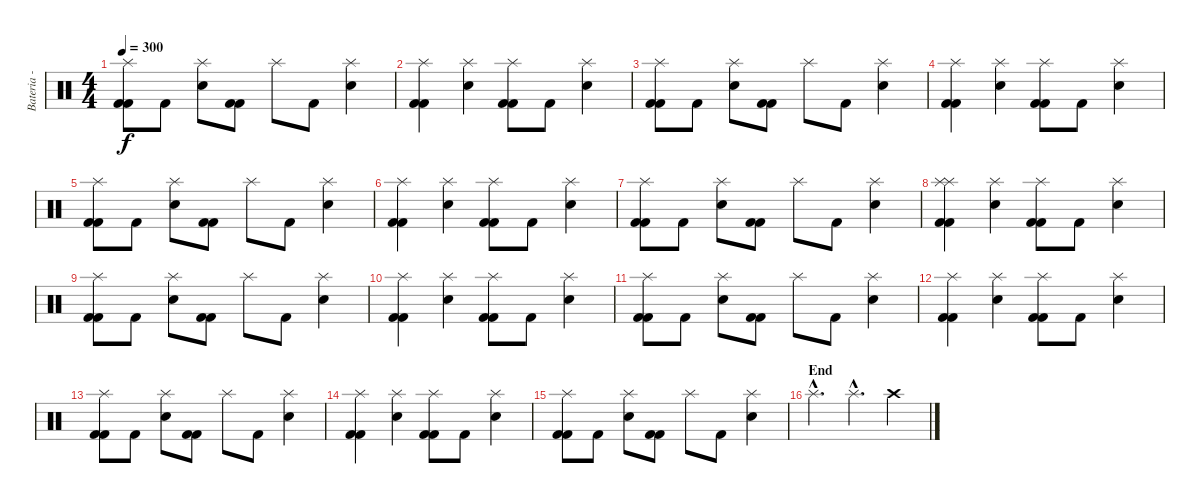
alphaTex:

\track ("Bateria - Larzon" "Bateria - ") {instrument percussion}
\staff {score}
\articulation defaults
\ts (4 4)
\tempo 300
\clef neutral
\ks c
("Kick (hit) 2" "Kick (hit) 2" "Splash (hit)").8{dy f} "Kick (hit) 2".8 ("Snare (hit) 2" "Splash (hit)").8 ("Kick (hit) 2" "Kick (hit) 2").8 "Splash (hit)".8 "Kick (hit) 2".8 ("Snare (hit) 2" "Splash (hit)").4 |
("Kick (hit) 2" "Kick (hit) 2" "Splash (hit)").4 ("Snare (hit) 2" "Splash (hit)").4 ("Kick (hit) 2" "Kick (hit) 2" "Splash (hit)").8 "Kick (hit) 2".8 ("Snare (hit) 2" "Splash (hit)").4 |
("Kick (hit) 2" "Kick (hit) 2" "Splash (hit)").8 "Kick (hit) 2".8 ("Snare (hit) 2" "Splash (hit)").8 ("Kick (hit) 2" "Kick (hit) 2").8 "Splash (hit)".8 "Kick (hit) 2".8 ("Snare (hit) 2" "Splash (hit)").4 |
("Kick (hit) 2" "Kick (hit) 2" "Splash (hit)").4 ("Snare (hit) 2" "Splash (hit)").4 ("Kick (hit) 2" "Kick (hit) 2" "Splash (hit)").8 "Kick (hit) 2".8 ("Snare (hit) 2" "Splash (hit)").4 |
("Kick (hit) 2" "Kick (hit) 2" "Splash (hit)").8 "Kick (hit) 2".8 ("Snare (hit) 2" "Splash (hit)").8 ("Kick (hit) 2" "Kick (hit) 2").8 "Splash (hit)".8 "Kick (hit) 2".8 ("Snare (hit) 2" "Splash (hit)").4 |
("Kick (hit) 2" "Kick (hit) 2" "Splash (hit)").4 ("Snare (hit) 2" "Splash (hit)").4 ("Kick (hit) 2" "Kick (hit) 2" "Splash (hit)").8 "Kick (hit) 2".8 ("Snare (hit) 2" "Splash (hit)").4 |
("Kick (hit) 2" "Kick (hit) 2" "Splash (hit)").8 "Kick (hit) 2".8 ("Snare (hit) 2" "Splash (hit)").8 ("Kick (hit) 2" "Kick (hit) 2").8 "Splash (hit)".8 "Kick (hit) 2".8 ("Snare (hit) 2" "Splash (hit)").4 |
("Splash (hit)" "Kick (hit) 2" "Kick (hit) 2" "Splash (hit)").4 ("Snare (hit) 2" "Splash (hit)").4 ("Kick (hit) 2" "Kick (hit) 2" "Splash (hit)").8 "Kick (hit) 2".8 ("Snare (hit) 2" "Splash (hit)").4 |
("Kick (hit) 2" "Kick (hit) 2" "Splash (hit)").8 "Kick (hit) 2".8 ("Snare (hit) 2" "Splash (hit)").8 ("Kick (hit) 2" "Kick (hit) 2").8 "Splash (hit)".8 "Kick (hit) 2".8 ("Snare (hit) 2" "Splash (hit)").4 |
("Kick (hit) 2" "Kick (hit) 2" "Splash (hit)").4 ("Snare (hit) 2" "Splash (hit)").4 ("Kick (hit) 2" "Kick (hit) 2" "Splash (hit)").8 "Kick (hit) 2".8 ("Snare (hit) 2" "Splash (hit)").4 |
("Kick (hit) 2" "Kick (hit) 2" "Splash (hit)").8 "Kick (hit) 2".8 ("Snare (hit) 2" "Splash (hit)").8 ("Kick (hit) 2" "Kick (hit) 2").8 "Splash (hit)".8 "Kick (hit) 2".8 ("Snare (hit) 2" "Splash (hit)").4 |
("Kick (hit) 2" "Kick (hit) 2" "Splash (hit)").4 ("Snare (hit) 2" "Splash (hit)").4 ("Kick (hit) 2" "Kick (hit) 2" "Splash (hit)").8 "Kick (hit) 2".8 ("Snare (hit) 2" "Splash (hit)").4 |
("Kick (hit) 2" "Kick (hit) 2" "Splash (hit)").8 "Kick (hit) 2".8 ("Snare (hit) 2" "Splash (hit)").8 ("Kick (hit) 2" "Kick (hit) 2").8 "Splash (hit)".8 "Kick (hit) 2".8 ("Snare (hit) 2" "Splash (hit)").4 |
("Kick (hit) 2" "Kick (hit) 2" "Splash (hit)").4 ("Snare (hit) 2" "Splash (hit)").4 ("Kick (hit) 2" "Kick (hit) 2" "Splash (hit)").8 "Kick (hit) 2".8 ("Snare (hit) 2" "Splash (hit)").4 |
("Kick (hit) 2" "Kick (hit) 2" "Splash (hit)").8 "Kick (hit) 2".8 ("Snare (hit) 2" "Splash (hit)").8 ("Kick (hit) 2" "Kick (hit) 2").8 "Splash (hit)".8 "Kick (hit) 2".8 ("Snare (hit) 2" "Splash (hit)").4 |
\section ("" "End")
"Splash (hit)"{hac}.4{d} "Splash (hit)"{hac}.4{d} "Crash high (hit)".4
